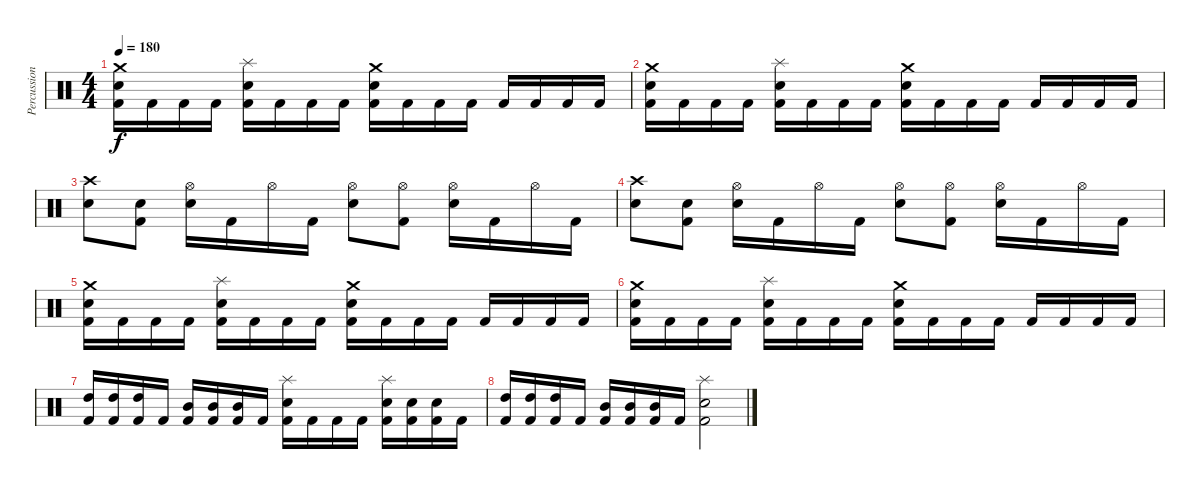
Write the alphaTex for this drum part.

\track ("Percussion" "Percussion") {instrument percussion}
\staff {score}
\articulation defaults
\ts (4 4)
\tempo 180
\clef neutral
\ks c
("Crash medium (hit)" "Snare (hit) 2" "Kick (hit) 2").16{dy f} "Kick (hit) 2".16 "Kick (hit) 2".16 "Kick (hit) 2".16 ("Splash (hit)" "Snare (hit) 2" "Kick (hit) 2").16 "Kick (hit) 2".16 "Kick (hit) 2".16 "Kick (hit) 2".16 ("Crash medium (hit)" "Snare (hit) 2" "Kick (hit) 2").16 "Kick (hit) 2".16 "Kick (hit) 2".16 "Kick (hit) 2".16 "Kick (hit) 2".16 "Kick (hit) 2".16 "Kick (hit) 2".16 "Kick (hit) 2".16 |
("Crash medium (hit)" "Snare (hit) 2" "Kick (hit) 2").16 "Kick (hit) 2".16 "Kick (hit) 2".16 "Kick (hit) 2".16 ("Splash (hit)" "Snare (hit) 2" "Kick (hit) 2").16 "Kick (hit) 2".16 "Kick (hit) 2".16 "Kick (hit) 2".16 ("Crash medium (hit)" "Snare (hit) 2" "Kick (hit) 2").16 "Kick (hit) 2".16 "Kick (hit) 2".16 "Kick (hit) 2".16 "Kick (hit) 2".16 "Kick (hit) 2".16 "Kick (hit) 2".16 "Kick (hit) 2".16 |
("Crash high (hit)" "Snare (hit) 2").8 ("Snare (hit)" "Kick (hit) 2").8 ("Hi-Hat (open)" "Snare (hit) 2").16 "Kick (hit) 2".16 "Hi-Hat (open)".16 "Kick (hit) 2".16 ("Hi-Hat (open)" "Snare (hit) 2").8 ("Hi-Hat (open)" "Kick (hit) 2").8 ("Hi-Hat (open)" "Snare (hit) 2").16 "Kick (hit) 2".16 "Hi-Hat (open)".16 "Kick (hit) 2".16 |
("Crash high (hit)" "Snare (hit) 2").8 ("Snare (hit)" "Kick (hit) 2").8 ("Hi-Hat (open)" "Snare (hit) 2").16 "Kick (hit) 2".16 "Hi-Hat (open)".16 "Kick (hit) 2".16 ("Hi-Hat (open)" "Snare (hit) 2").8 ("Hi-Hat (open)" "Kick (hit) 2").8 ("Hi-Hat (open)" "Snare (hit) 2").16 "Kick (hit) 2".16 "Hi-Hat (open)".16 "Kick (hit) 2".16 |
("Crash medium (hit)" "Snare (hit) 2" "Kick (hit) 2").16 "Kick (hit) 2".16 "Kick (hit) 2".16 "Kick (hit) 2".16 ("Splash (hit)" "Snare (hit) 2" "Kick (hit) 2").16 "Kick (hit) 2".16 "Kick (hit) 2".16 "Kick (hit) 2".16 ("Crash medium (hit)" "Snare (hit) 2" "Kick (hit) 2").16 "Kick (hit) 2".16 "Kick (hit) 2".16 "Kick (hit) 2".16 "Kick (hit) 2".16 "Kick (hit) 2".16 "Kick (hit) 2".16 "Kick (hit) 2".16 |
("Crash medium (hit)" "Snare (hit) 2" "Kick (hit) 2").16 "Kick (hit) 2".16 "Kick (hit) 2".16 "Kick (hit) 2".16 ("Splash (hit)" "Snare (hit) 2" "Kick (hit) 2").16 "Kick (hit) 2".16 "Kick (hit) 2".16 "Kick (hit) 2".16 ("Crash medium (hit)" "Snare (hit) 2" "Kick (hit) 2").16 "Kick (hit) 2".16 "Kick (hit) 2".16 "Kick (hit) 2".16 "Kick (hit) 2".16 "Kick (hit) 2".16 "Kick (hit) 2".16 "Kick (hit) 2".16 |
("High Tom (hit)" "Kick (hit) 2").16 ("High Tom (hit)" "Kick (hit) 2").16 ("High Tom (hit)" "Kick (hit) 2").16 "Kick (hit) 2".16 ("Mid Tom (hit)" "Kick (hit) 2").16 ("Mid Tom (hit)" "Kick (hit) 2").16 ("Mid Tom (hit)" "Kick (hit) 2").16 "Kick (hit) 2".16 ("Splash (hit)" "Snare (hit) 2" "Kick (hit) 2").16 "Kick (hit) 2".16 "Kick (hit) 2".16 "Kick (hit) 2".16 ("Splash (hit)" "Snare (hit) 2" "Kick (hit) 2").16 ("Snare (hit)" "Kick (hit) 2").16 ("Snare (hit)" "Kick (hit) 2").16 "Kick (hit) 2".16 |
("High Tom (hit)" "Kick (hit) 2").16 ("High Tom (hit)" "Kick (hit) 2").16 ("High Tom (hit)" "Kick (hit) 2").16 "Kick (hit) 2".16 ("Mid Tom (hit)" "Kick (hit) 2").16 ("Mid Tom (hit)" "Kick (hit) 2").16 ("Mid Tom (hit)" "Kick (hit) 2").16 "Kick (hit) 2".16 ("Splash (hit)" "Snare (hit) 2" "Kick (hit) 2").2
